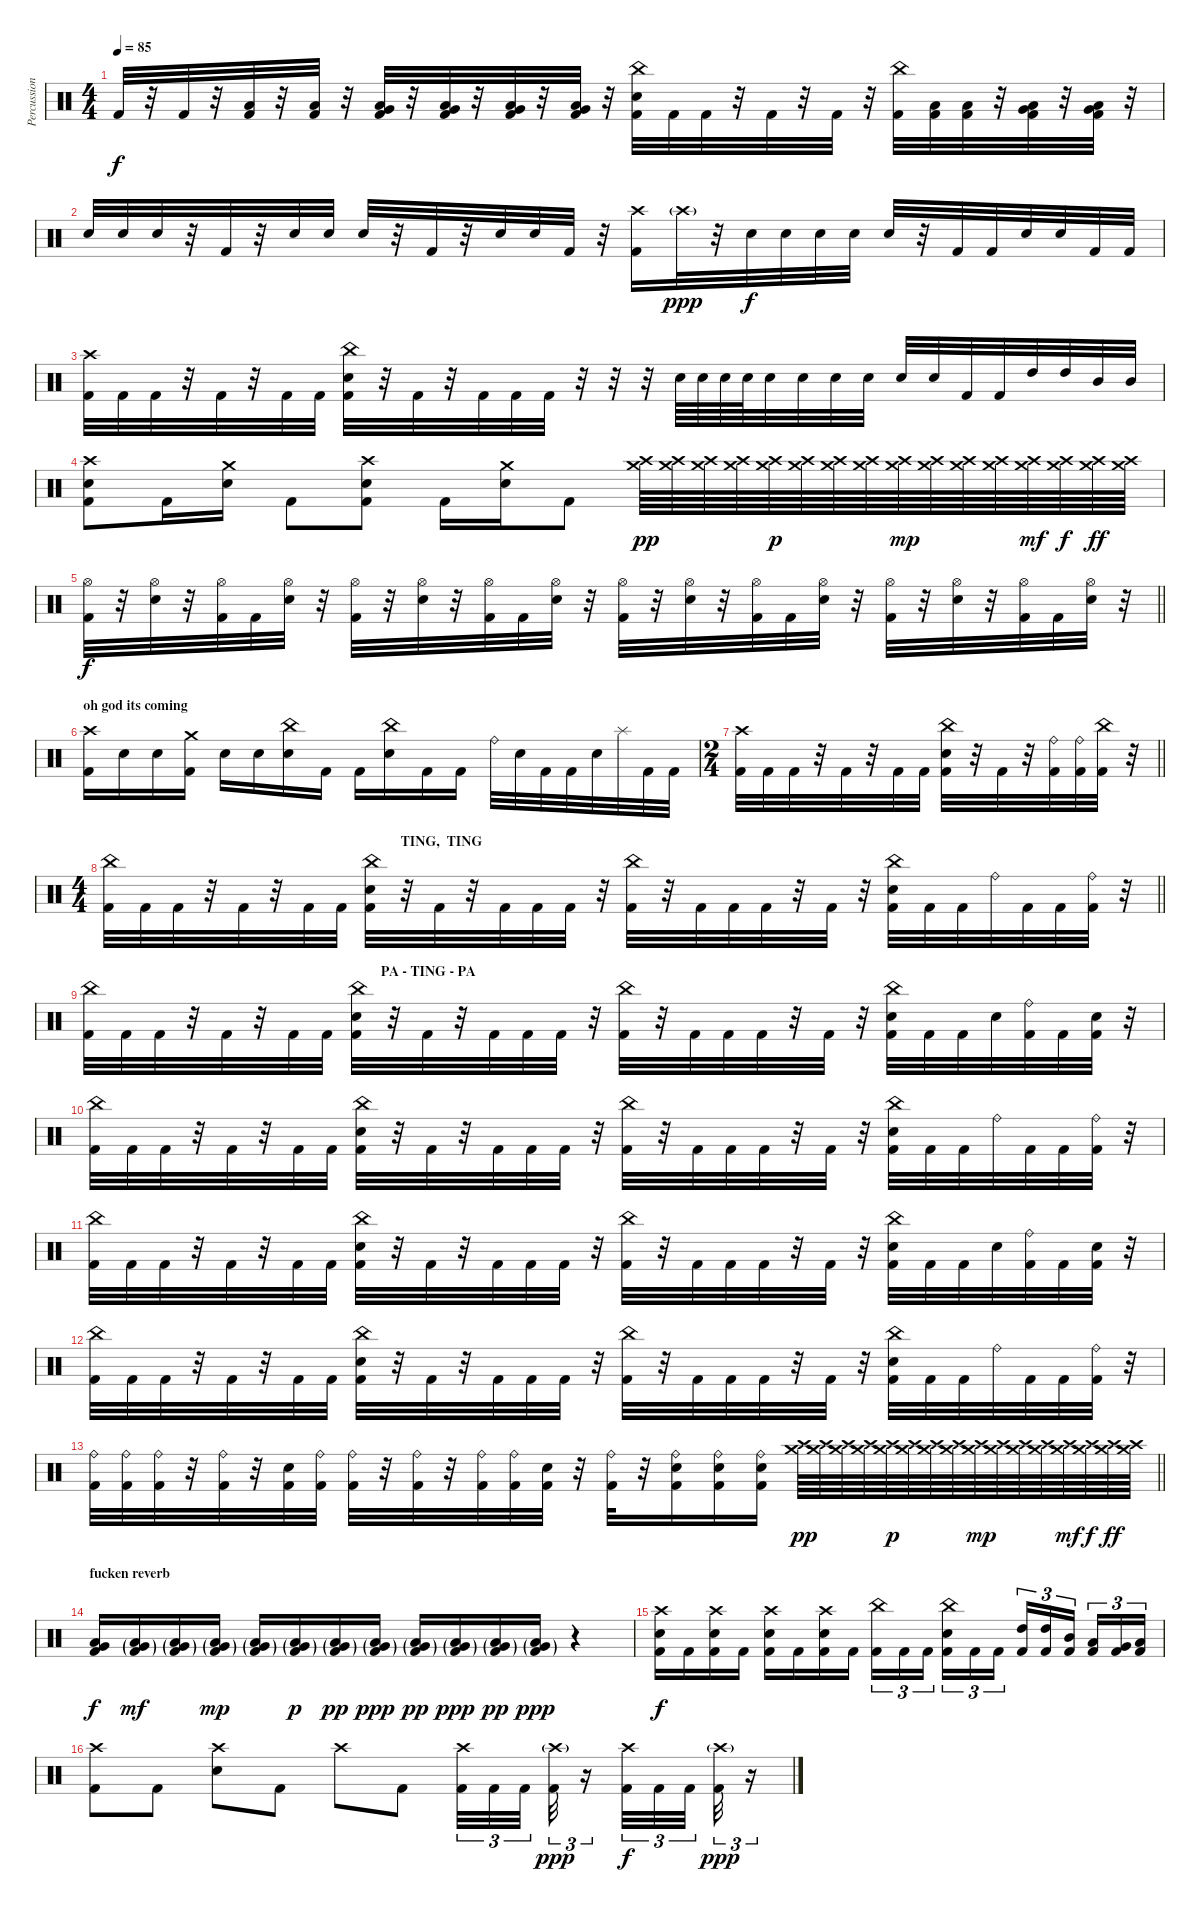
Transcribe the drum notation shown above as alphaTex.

\track ("Percussion" "Percussion") {instrument percussion}
\staff {score}
\articulation defaults
\ts (4 4)
\tempo 85
\clef neutral
\ks c "Kick (hit) 2".32{dy f}
r.32 "Kick (hit) 2".32 r.32 ("Kick (hit) 2" "Low Floor Tom (hit)").32 r.32 ("Kick (hit) 2" "Low Floor Tom (hit)").32 r.32 ("Kick (hit) 2" "Very Low Tom (hit)" "Low Floor Tom (hit)").32 r.32 ("Kick (hit) 2" "Very Low Tom (hit)" "Low Floor Tom (hit)").32 r.32 ("Kick (hit) 2" "Very Low Tom (hit)" "Low Floor Tom (hit)").32 r.32 ("Kick (hit) 2" "Very Low Tom (hit)" "Low Floor Tom (hit)").32 r.32 ("Kick (hit) 2" "Snare (hit) 2" "China (hit)").32 "Kick (hit) 2".32 "Kick (hit) 2".32 r.32 "Kick (hit) 2".32 r.32 "Kick (hit) 2".32 r.32 ("Kick (hit) 2" "China (hit)").32 ("Kick (hit) 2" "Low Floor Tom (hit)").32 ("Kick (hit) 2" "Low Floor Tom (hit)").32 r.32 ("Kick (hit) 2" "Low Floor Tom (hit)" "Very Low Tom (hit)").32 r.32 ("Kick (hit) 2" "Low Floor Tom (hit)" "Very Low Tom (hit)").32 r.32 |
"Snare (hit) 2".32 "Snare (hit) 2".32 "Snare (hit) 2".32 r.32 "Kick (hit) 2".32 r.32 "Snare (hit) 2".32 "Snare (hit) 2".32 "Snare (hit) 2".32 r.32 "Kick (hit) 2".32 r.32 "Snare (hit) 2".32 "Snare (hit) 2".32 "Kick (hit) 2".32 r.32 ("Crash high (hit)" "Kick (hit) 2").16 "Crash high (hit)"{g}.32{dy ppp} r.32 "Snare (hit) 2".32{dy f} "Snare (hit) 2".32 "Snare (hit) 2".32 "Snare (hit) 2".32 "Snare (hit) 2".32 r.32 "Kick (hit) 2".32 "Kick (hit) 2".32 "Snare (hit) 2".32 "Snare (hit) 2".32 "Kick (hit) 2".32 "Kick (hit) 2".32 |
("Kick (hit) 2" "Crash high (hit)").32 "Kick (hit) 2".32 "Kick (hit) 2".32 r.32 "Kick (hit) 2".32 r.32 "Kick (hit) 2".32 "Kick (hit) 2".32 ("Kick (hit) 2" "Snare (hit) 2" "China (hit)").32 r.32 "Kick (hit) 2".32 r.32 "Kick (hit) 2".32 "Kick (hit) 2".32 "Kick (hit) 2".32 r.32 r.32 r.32 "Snare (hit) 2".64 "Snare (hit) 2".64 "Snare (hit) 2".64 "Snare (hit) 2".64 "Snare (hit) 2".32 "Snare (hit) 2".32 "Snare (hit) 2".32 "Snare (hit) 2".32 "Snare (hit) 2".32 "Snare (hit) 2".32 "Kick (hit) 2".32 "Kick (hit) 2".32 "High Tom (hit)".32 "High Tom (hit)".32 "Mid Tom (hit)".32 "Mid Tom (hit)".32 |
("Kick (hit) 2" "Crash high (hit)" "Snare (hit) 2").8 "Kick (hit) 2".16 ("Crash medium (hit)" "Snare (hit) 2").16 "Kick (hit) 2".8 ("Kick (hit) 2" "Crash high (hit)" "Snare (hit) 2").8 "Kick (hit) 2".16 ("Crash medium (hit)" "Snare (hit) 2").16 "Kick (hit) 2".8 ("Crash high (hit)" "Crash medium (hit)").64{dy pp} ("Crash high (hit)" "Crash medium (hit)").64 ("Crash high (hit)" "Crash medium (hit)").64 ("Crash high (hit)" "Crash medium (hit)").64 ("Crash high (hit)" "Crash medium (hit)").64{dy p} ("Crash high (hit)" "Crash medium (hit)").64 ("Crash high (hit)" "Crash medium (hit)").64 ("Crash high (hit)" "Crash medium (hit)").64 ("Crash high (hit)" "Crash medium (hit)").64{dy mp} ("Crash high (hit)" "Crash medium (hit)").64 ("Crash high (hit)" "Crash medium (hit)").64 ("Crash high (hit)" "Crash medium (hit)").64 ("Crash high (hit)" "Crash medium (hit)").64{dy mf} ("Crash high (hit)" "Crash medium (hit)").64{dy f} ("Crash high (hit)" "Crash medium (hit)").64{dy ff} ("Crash high (hit)" "Crash medium (hit)").64 |
\barLineRight lightlight
("Hi-Hat (open)" "Kick (hit) 2").32{dy f} r.32 ("Hi-Hat (open)" "Snare (hit) 2").32 r.32 ("Hi-Hat (open)" "Kick (hit) 2").32 "Kick (hit) 2".32 ("Hi-Hat (open)" "Snare (hit) 2").32 r.32 ("Hi-Hat (open)" "Kick (hit) 2").32 r.32 ("Hi-Hat (open)" "Snare (hit) 2").32 r.32 ("Hi-Hat (open)" "Kick (hit) 2").32 "Kick (hit) 2".32 ("Hi-Hat (open)" "Snare (hit) 2").32 r.32 ("Hi-Hat (open)" "Kick (hit) 2").32 r.32 ("Hi-Hat (open)" "Snare (hit) 2").32 r.32 ("Hi-Hat (open)" "Kick (hit) 2").32 "Kick (hit) 2".32 ("Hi-Hat (open)" "Snare (hit) 2").32 r.32 ("Hi-Hat (open)" "Kick (hit) 2").32 r.32 ("Hi-Hat (open)" "Snare (hit) 2").32 r.32 ("Hi-Hat (open)" "Kick (hit) 2").32 "Kick (hit) 2".32 ("Hi-Hat (open)" "Snare (hit) 2").32 r.32 |
\section ("" "oh god its coming")
("Crash high (hit)" "Kick (hit) 2").16 "Snare (hit) 2".16 "Snare (hit) 2".16 ("Crash medium (hit)" "Kick (hit) 2").16 "Snare (hit) 2".16 "Snare (hit) 2".16 ("China (hit)" "Snare (hit) 2").16 "Kick (hit) 2".16 "Kick (hit) 2".16 ("China (hit)" "Snare (hit) 2").16 "Kick (hit) 2".16 "Kick (hit) 2".16 "Ride (bell)".32 "Snare (hit) 2".32 "Kick (hit) 2".32 "Kick (hit) 2".32 "Snare (hit) 2".32 "Splash (hit)".32 "Kick (hit) 2".32 "Kick (hit) 2".32 |
\ts (2 4)
\barLineRight lightlight
("Kick (hit) 2" "Crash high (hit)").32 "Kick (hit) 2".32 "Kick (hit) 2".32 r.32 "Kick (hit) 2".32 r.32 "Kick (hit) 2".32 "Kick (hit) 2".32 ("Kick (hit) 2" "Snare (hit) 2" "China (hit)").32 r.32 "Kick (hit) 2".32 r.32 ("Kick (hit) 2" "Ride (bell)").32 ("Kick (hit) 2" "Ride (bell)").32 ("Kick (hit) 2" "China (hit)").32 r.32 |
\ts (4 4)
\section ("" "                                                                                     TING,  TING")
\barLineRight lightlight
("Kick (hit) 2" "China (hit)").32 "Kick (hit) 2".32 "Kick (hit) 2".32 r.32 "Kick (hit) 2".32 r.32 "Kick (hit) 2".32 "Kick (hit) 2".32 ("Kick (hit) 2" "Snare (hit) 2" "China (hit)").32 r.32 "Kick (hit) 2".32 r.32 "Kick (hit) 2".32 "Kick (hit) 2".32 "Kick (hit) 2".32 r.32 ("Kick (hit) 2" "China (hit)").32 r.32 "Kick (hit) 2".32 "Kick (hit) 2".32 "Kick (hit) 2".32 r.32 "Kick (hit) 2".32 r.32 ("Kick (hit) 2" "Snare (hit) 2" "China (hit)").32 "Kick (hit) 2".32 "Kick (hit) 2".32 "Ride (bell)".32 "Kick (hit) 2".32 "Kick (hit) 2".32 ("Kick (hit) 2" "Ride (bell)").32 r.32 |
\section ("" "                                                                                     PA - TING - PA")
("Kick (hit) 2" "China (hit)").32 "Kick (hit) 2".32 "Kick (hit) 2".32 r.32 "Kick (hit) 2".32 r.32 "Kick (hit) 2".32 "Kick (hit) 2".32 ("Kick (hit) 2" "Snare (hit) 2" "China (hit)").32 r.32 "Kick (hit) 2".32 r.32 "Kick (hit) 2".32 "Kick (hit) 2".32 "Kick (hit) 2".32 r.32 ("Kick (hit) 2" "China (hit)").32 r.32 "Kick (hit) 2".32 "Kick (hit) 2".32 "Kick (hit) 2".32 r.32 "Kick (hit) 2".32 r.32 ("Kick (hit) 2" "Snare (hit) 2" "China (hit)").32 "Kick (hit) 2".32 "Kick (hit) 2".32 "Snare (hit) 2".32 ("Kick (hit) 2" "Ride (bell)").32 "Kick (hit) 2".32 ("Kick (hit) 2" "Snare (hit) 2").32 r.32 |
("Kick (hit) 2" "China (hit)").32 "Kick (hit) 2".32 "Kick (hit) 2".32 r.32 "Kick (hit) 2".32 r.32 "Kick (hit) 2".32 "Kick (hit) 2".32 ("Kick (hit) 2" "Snare (hit) 2" "China (hit)").32 r.32 "Kick (hit) 2".32 r.32 "Kick (hit) 2".32 "Kick (hit) 2".32 "Kick (hit) 2".32 r.32 ("Kick (hit) 2" "China (hit)").32 r.32 "Kick (hit) 2".32 "Kick (hit) 2".32 "Kick (hit) 2".32 r.32 "Kick (hit) 2".32 r.32 ("Kick (hit) 2" "Snare (hit) 2" "China (hit)").32 "Kick (hit) 2".32 "Kick (hit) 2".32 "Ride (bell)".32 "Kick (hit) 2".32 "Kick (hit) 2".32 ("Kick (hit) 2" "Ride (bell)").32 r.32 |
("Kick (hit) 2" "China (hit)").32 "Kick (hit) 2".32 "Kick (hit) 2".32 r.32 "Kick (hit) 2".32 r.32 "Kick (hit) 2".32 "Kick (hit) 2".32 ("Kick (hit) 2" "Snare (hit) 2" "China (hit)").32 r.32 "Kick (hit) 2".32 r.32 "Kick (hit) 2".32 "Kick (hit) 2".32 "Kick (hit) 2".32 r.32 ("Kick (hit) 2" "China (hit)").32 r.32 "Kick (hit) 2".32 "Kick (hit) 2".32 "Kick (hit) 2".32 r.32 "Kick (hit) 2".32 r.32 ("Kick (hit) 2" "Snare (hit) 2" "China (hit)").32 "Kick (hit) 2".32 "Kick (hit) 2".32 "Snare (hit) 2".32 ("Kick (hit) 2" "Ride (bell)").32 "Kick (hit) 2".32 ("Kick (hit) 2" "Snare (hit) 2").32 r.32 |
("Kick (hit) 2" "China (hit)").32 "Kick (hit) 2".32 "Kick (hit) 2".32 r.32 "Kick (hit) 2".32 r.32 "Kick (hit) 2".32 "Kick (hit) 2".32 ("Kick (hit) 2" "Snare (hit) 2" "China (hit)").32 r.32 "Kick (hit) 2".32 r.32 "Kick (hit) 2".32 "Kick (hit) 2".32 "Kick (hit) 2".32 r.32 ("Kick (hit) 2" "China (hit)").32 r.32 "Kick (hit) 2".32 "Kick (hit) 2".32 "Kick (hit) 2".32 r.32 "Kick (hit) 2".32 r.32 ("Kick (hit) 2" "Snare (hit) 2" "China (hit)").32 "Kick (hit) 2".32 "Kick (hit) 2".32 "Ride (bell)".32 "Kick (hit) 2".32 "Kick (hit) 2".32 ("Kick (hit) 2" "Ride (bell)").32 r.32 |
\barLineRight lightlight
("Kick (hit) 2" "Ride (bell)").32 ("Kick (hit) 2" "Ride (bell)").32 ("Kick (hit) 2" "Ride (bell)").32 r.32 ("Kick (hit) 2" "Ride (bell)").32 r.32 ("Kick (hit) 2" "Snare (hit) 2").32 ("Kick (hit) 2" "Ride (bell)").32 ("Kick (hit) 2" "Ride (bell)").32 r.32 ("Kick (hit) 2" "Ride (bell)").32 r.32 ("Kick (hit) 2" "Ride (bell)").32 ("Kick (hit) 2" "Ride (bell)").32 ("Kick (hit) 2" "Snare (hit) 2").32 r.32 ("Kick (hit) 2" "Ride (bell)").32 r.32 ("Kick (hit) 2" "Snare (hit) 2" "Ride (bell)").16 ("Kick (hit) 2" "Snare (hit) 2" "Ride (bell)").16 ("Kick (hit) 2" "Snare (hit) 2" "Ride (bell)").16 ("Crash high (hit)" "Crash medium (hit)").64{dy pp} ("Crash high (hit)" "Crash medium (hit)").64 ("Crash high (hit)" "Crash medium (hit)").64 ("Crash high (hit)" "Crash medium (hit)").64 ("Crash high (hit)" "Crash medium (hit)").64{dy p} ("Crash high (hit)" "Crash medium (hit)").64 ("Crash high (hit)" "Crash medium (hit)").64 ("Crash high (hit)" "Crash medium (hit)").64 ("Crash high (hit)" "Crash medium (hit)").64{dy mp} ("Crash high (hit)" "Crash medium (hit)").64 ("Crash high (hit)" "Crash medium (hit)").64 ("Crash high (hit)" "Crash medium (hit)").64 ("Crash high (hit)" "Crash medium (hit)").64{dy mf} ("Crash high (hit)" "Crash medium (hit)").64{dy f} ("Crash high (hit)" "Crash medium (hit)").64{dy ff} ("Crash high (hit)" "Crash medium (hit)").64 |
\section ("" "fucken reverb")
("Kick (hit) 2" "Low Floor Tom (hit)" "Very Low Tom (hit)").16{dy f} ("Kick (hit) 2"{g} "Low Floor Tom (hit)"{g} "Very Low Tom (hit)"{g}).16{dy mf} ("Kick (hit) 2"{g} "Low Floor Tom (hit)"{g} "Very Low Tom (hit)"{g}).16 ("Kick (hit) 2"{g} "Low Floor Tom (hit)"{g} "Very Low Tom (hit)"{g}).16{dy mp} ("Kick (hit) 2"{g} "Low Floor Tom (hit)"{g} "Very Low Tom (hit)"{g}).16 ("Kick (hit) 2"{g} "Low Floor Tom (hit)"{g} "Very Low Tom (hit)"{g}).16{dy p} ("Kick (hit) 2"{g} "Low Floor Tom (hit)"{g} "Very Low Tom (hit)"{g}).16{dy pp} ("Kick (hit) 2"{g} "Low Floor Tom (hit)"{g} "Very Low Tom (hit)"{g}).16{dy ppp} ("Kick (hit) 2"{g} "Low Floor Tom (hit)"{g} "Very Low Tom (hit)"{g}).16{dy pp} ("Kick (hit) 2"{g} "Low Floor Tom (hit)"{g} "Very Low Tom (hit)"{g}).16{dy ppp} ("Kick (hit) 2"{g} "Low Floor Tom (hit)"{g} "Very Low Tom (hit)"{g}).16{dy pp} ("Kick (hit) 2"{g} "Low Floor Tom (hit)"{g} "Very Low Tom (hit)"{g}).16{dy ppp} r.4 |
("Crash high (hit)" "Snare (hit) 2" "Kick (hit) 2").16{dy f} "Kick (hit) 2".16 ("Crash high (hit)" "Snare (hit) 2" "Kick (hit) 2").16 "Kick (hit) 2".16 ("Crash high (hit)" "Snare (hit) 2" "Kick (hit) 2").16 "Kick (hit) 2".16 ("Crash high (hit)" "Snare (hit) 2" "Kick (hit) 2").16 "Kick (hit) 2".16 ("China (hit)" "Kick (hit) 2").16{tu (3 2)} "Kick (hit) 2".16{tu (3 2)} "Kick (hit) 2".16{tu (3 2) beam splitsecondary} ("China (hit)" "Snare (hit) 2" "Kick (hit) 2").16{tu (3 2)} "Kick (hit) 2".16{tu (3 2)} "Kick (hit) 2".16{tu (3 2)} ("High Tom (hit)" "Kick (hit) 2").16{tu (3 2)} ("High Tom (hit)" "Kick (hit) 2").16{tu (3 2)} ("Mid Tom (hit)" "Kick (hit) 2").16{tu (3 2) beam splitsecondary} ("Low Tom (hit)" "Kick (hit) 2").16{tu (3 2)} ("Very Low Tom (hit)" "Kick (hit) 2").16{tu (3 2)} ("Low Floor Tom (hit)" "Kick (hit) 2").16{tu (3 2)} |
("Crash high (hit)" "Kick (hit) 2").8 "Kick (hit) 2".8 ("Crash high (hit)" "Snare (hit) 2").8 "Kick (hit) 2".8 "Crash high (hit)".8 "Kick (hit) 2".8 ("Crash high (hit)" "Kick (hit) 2").32{tu (3 2)} "Kick (hit) 2".32{tu (3 2)} "Kick (hit) 2".32{tu (3 2) beam splitsecondary} ("Crash high (hit)"{g} "Kick (hit) 2").32{tu (3 2) dy ppp} r.16{tu (3 2)} ("Crash high (hit)" "Kick (hit) 2").32{tu (3 2) dy f} "Kick (hit) 2".32{tu (3 2)} "Kick (hit) 2".32{tu (3 2) beam splitsecondary} ("Crash high (hit)"{g} "Kick (hit) 2").32{tu (3 2) dy ppp} r.16{tu (3 2)}
